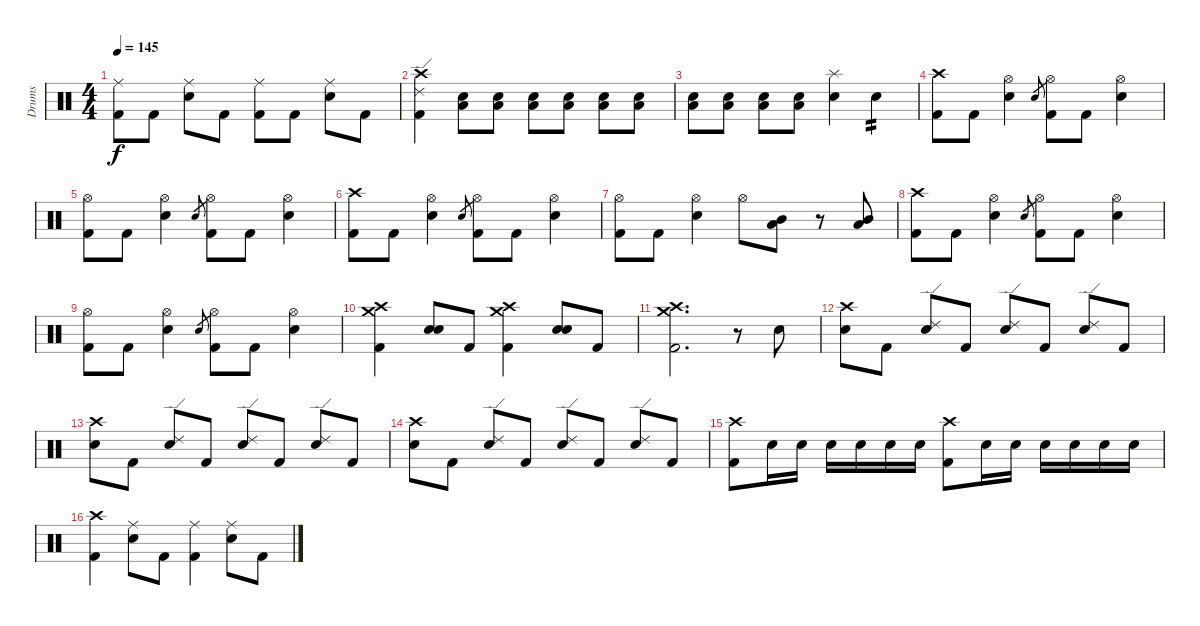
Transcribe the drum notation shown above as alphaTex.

\track ("Drums" "Drums") {instrument percussion}
\staff {score}
\articulation defaults
\ts (4 4)
\tempo 145
\clef neutral
\ks c
("Kick (hit) 2" "Ride (middle)").8{dy f} "Kick (hit) 2".8 ("Electric Snare (hit)" "Ride (middle)").8 "Kick (hit) 2".8 ("Kick (hit) 2" "Ride (middle)").8 "Kick (hit) 2".8 ("Electric Snare (hit)" "Ride (middle)").8 "Kick (hit) 2".8 |
("Kick (hit) 2" "Ride (edge) 2" "Crash high (hit)").4 ("Electric Snare (hit)" "Low Tom (hit)").8 ("Electric Snare (hit)" "Low Tom (hit)").8 ("Electric Snare (hit)" "Low Tom (hit)").8 ("Electric Snare (hit)" "Low Tom (hit)").8 ("Electric Snare (hit)" "Low Tom (hit)").8 ("Electric Snare (hit)" "Low Tom (hit)").8 |
("Electric Snare (hit)" "Low Tom (hit)").8 ("Electric Snare (hit)" "Low Tom (hit)").8 ("Electric Snare (hit)" "Low Tom (hit)").8 ("Electric Snare (hit)" "Low Tom (hit)").8 ("Electric Snare (hit)" "Splash (hit)").4 "Electric Snare (hit)".4{tp 2} |
("Kick (hit) 2" "Crash high (hit)").8 "Kick (hit) 2".8 ("Electric Snare (hit)" "Hi-Hat (open)").4 "Electric Snare (hit)".8{gr} ("Kick (hit) 2" "Hi-Hat (open)").8 "Kick (hit) 2".8 ("Electric Snare (hit)" "Hi-Hat (open)").4 |
("Kick (hit) 2" "Hi-Hat (open)").8 "Kick (hit) 2".8 ("Electric Snare (hit)" "Hi-Hat (open)").4 "Electric Snare (hit)".8{gr} ("Kick (hit) 2" "Hi-Hat (open)").8 "Kick (hit) 2".8 ("Electric Snare (hit)" "Hi-Hat (open)").4 |
("Kick (hit) 2" "Crash high (hit)").8 "Kick (hit) 2".8 ("Electric Snare (hit)" "Hi-Hat (open)").4 "Electric Snare (hit)".8{gr} ("Kick (hit) 2" "Hi-Hat (open)").8 "Kick (hit) 2".8 ("Electric Snare (hit)" "Hi-Hat (open)").4 |
("Kick (hit) 2" "Hi-Hat (open)").8 "Kick (hit) 2".8 ("Electric Snare (hit)" "Hi-Hat (open)").4 "Hi-Hat (open)".8 ("Low Tom (hit)" "Mid Tom (hit)").8 r.8 ("Low Tom (hit)" "Mid Tom (hit)").8 |
("Kick (hit) 2" "Crash high (hit)").8 "Kick (hit) 2".8 ("Electric Snare (hit)" "Hi-Hat (open)").4 "Electric Snare (hit)".8{gr} ("Kick (hit) 2" "Hi-Hat (open)").8 "Kick (hit) 2".8 ("Electric Snare (hit)" "Hi-Hat (open)").4 |
("Kick (hit) 2" "Hi-Hat (open)").8 "Kick (hit) 2".8 ("Electric Snare (hit)" "Hi-Hat (open)").4 "Electric Snare (hit)".8{gr} ("Kick (hit) 2" "Hi-Hat (open)").8 "Kick (hit) 2".8 ("Electric Snare (hit)" "Hi-Hat (open)").4 |
("Kick (hit) 2" "Crash high (hit)" "Crash medium (hit)").4 ("Electric Snare (hit)" "Electric Snare (hit)").8 "Kick (hit) 2".8 ("Kick (hit) 2" "Crash high (hit)" "Crash medium (hit)").4 ("Electric Snare (hit)" "Electric Snare (hit)").8 "Kick (hit) 2".8 |
("Kick (hit) 2" "Crash high (hit)" "Crash medium (hit)").2{d} r.8 "Electric Snare (hit)".8 |
("Electric Snare (hit)" "Crash high (hit)").8 "Kick (hit) 2".8 ("Electric Snare (hit)" "Ride (edge) 2").8 "Kick (hit) 2".8 ("Electric Snare (hit)" "Ride (edge) 2").8 "Kick (hit) 2".8 ("Electric Snare (hit)" "Ride (edge) 2").8 "Kick (hit) 2".8 |
("Electric Snare (hit)" "Crash high (hit)").8 "Kick (hit) 2".8 ("Electric Snare (hit)" "Ride (edge) 2").8 "Kick (hit) 2".8 ("Electric Snare (hit)" "Ride (edge) 2").8 "Kick (hit) 2".8 ("Electric Snare (hit)" "Ride (edge) 2").8 "Kick (hit) 2".8 |
("Electric Snare (hit)" "Crash high (hit)").8 "Kick (hit) 2".8 ("Electric Snare (hit)" "Ride (edge) 2").8 "Kick (hit) 2".8 ("Electric Snare (hit)" "Ride (edge) 2").8 "Kick (hit) 2".8 ("Electric Snare (hit)" "Ride (edge) 2").8 "Kick (hit) 2".8 |
("Kick (hit) 2" "Crash high (hit)").8 "Electric Snare (hit)".16 "Electric Snare (hit)".16 "Electric Snare (hit)".16 "Electric Snare (hit)".16 "Electric Snare (hit)".16 "Electric Snare (hit)".16 ("Kick (hit) 2" "Crash high (hit)").8 "Electric Snare (hit)".16 "Electric Snare (hit)".16 "Electric Snare (hit)".16 "Electric Snare (hit)".16 "Electric Snare (hit)".16 "Electric Snare (hit)".16 |
("Kick (hit) 2" "Crash high (hit)").4 ("Electric Snare (hit)" "Ride (middle)").8 "Kick (hit) 2".8 ("Kick (hit) 2" "Ride (middle)").4 ("Electric Snare (hit)" "Ride (middle)").8 "Kick (hit) 2".8
